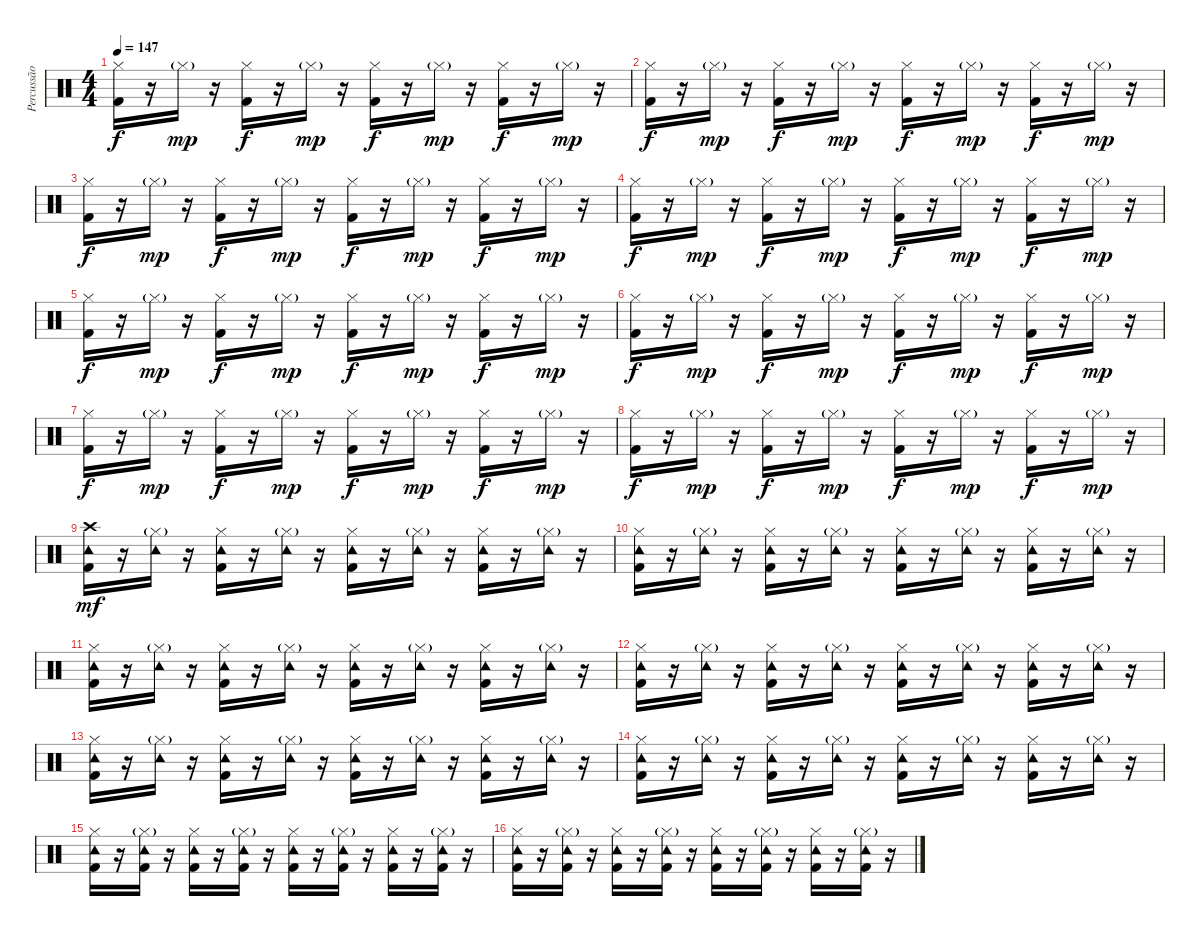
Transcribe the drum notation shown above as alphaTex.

\track ("Percussão" "Percussão") {instrument percussion}
\staff {score}
\articulation defaults
\ts (4 4)
\tempo 147
\clef neutral
\ks c
("Hi-Hat (closed)" "Kick (hit) 2").16{dy f} r.16 "Hi-Hat (closed)"{g}.16{dy mp} r.16 ("Hi-Hat (closed)" "Kick (hit) 2").16{dy f} r.16 "Hi-Hat (closed)"{g}.16{dy mp} r.16 ("Hi-Hat (closed)" "Kick (hit) 2").16{dy f} r.16 "Hi-Hat (closed)"{g}.16{dy mp} r.16 ("Hi-Hat (closed)" "Kick (hit) 2").16{dy f} r.16 "Hi-Hat (closed)"{g}.16{dy mp} r.16 |
("Hi-Hat (closed)" "Kick (hit) 2").16{dy f} r.16 "Hi-Hat (closed)"{g}.16{dy mp} r.16 ("Hi-Hat (closed)" "Kick (hit) 2").16{dy f} r.16 "Hi-Hat (closed)"{g}.16{dy mp} r.16 ("Hi-Hat (closed)" "Kick (hit) 2").16{dy f} r.16 "Hi-Hat (closed)"{g}.16{dy mp} r.16 ("Hi-Hat (closed)" "Kick (hit) 2").16{dy f} r.16 "Hi-Hat (closed)"{g}.16{dy mp} r.16 |
("Hi-Hat (closed)" "Kick (hit) 2").16{dy f} r.16 "Hi-Hat (closed)"{g}.16{dy mp} r.16 ("Hi-Hat (closed)" "Kick (hit) 2").16{dy f} r.16 "Hi-Hat (closed)"{g}.16{dy mp} r.16 ("Hi-Hat (closed)" "Kick (hit) 2").16{dy f} r.16 "Hi-Hat (closed)"{g}.16{dy mp} r.16 ("Hi-Hat (closed)" "Kick (hit) 2").16{dy f} r.16 "Hi-Hat (closed)"{g}.16{dy mp} r.16 |
("Hi-Hat (closed)" "Kick (hit) 2").16{dy f} r.16 "Hi-Hat (closed)"{g}.16{dy mp} r.16 ("Hi-Hat (closed)" "Kick (hit) 2").16{dy f} r.16 "Hi-Hat (closed)"{g}.16{dy mp} r.16 ("Hi-Hat (closed)" "Kick (hit) 2").16{dy f} r.16 "Hi-Hat (closed)"{g}.16{dy mp} r.16 ("Hi-Hat (closed)" "Kick (hit) 2").16{dy f} r.16 "Hi-Hat (closed)"{g}.16{dy mp} r.16 |
("Hi-Hat (closed)" "Kick (hit) 2").16{dy f} r.16 "Hi-Hat (closed)"{g}.16{dy mp} r.16 ("Hi-Hat (closed)" "Kick (hit) 2").16{dy f} r.16 "Hi-Hat (closed)"{g}.16{dy mp} r.16 ("Hi-Hat (closed)" "Kick (hit) 2").16{dy f} r.16 "Hi-Hat (closed)"{g}.16{dy mp} r.16 ("Hi-Hat (closed)" "Kick (hit) 2").16{dy f} r.16 "Hi-Hat (closed)"{g}.16{dy mp} r.16 |
("Hi-Hat (closed)" "Kick (hit) 2").16{dy f} r.16 "Hi-Hat (closed)"{g}.16{dy mp} r.16 ("Hi-Hat (closed)" "Kick (hit) 2").16{dy f} r.16 "Hi-Hat (closed)"{g}.16{dy mp} r.16 ("Hi-Hat (closed)" "Kick (hit) 2").16{dy f} r.16 "Hi-Hat (closed)"{g}.16{dy mp} r.16 ("Hi-Hat (closed)" "Kick (hit) 2").16{dy f} r.16 "Hi-Hat (closed)"{g}.16{dy mp} r.16 |
("Hi-Hat (closed)" "Kick (hit) 2").16{dy f} r.16 "Hi-Hat (closed)"{g}.16{dy mp} r.16 ("Hi-Hat (closed)" "Kick (hit) 2").16{dy f} r.16 "Hi-Hat (closed)"{g}.16{dy mp} r.16 ("Hi-Hat (closed)" "Kick (hit) 2").16{dy f} r.16 "Hi-Hat (closed)"{g}.16{dy mp} r.16 ("Hi-Hat (closed)" "Kick (hit) 2").16{dy f} r.16 "Hi-Hat (closed)"{g}.16{dy mp} r.16 |
("Hi-Hat (closed)" "Kick (hit) 2").16{dy f} r.16 "Hi-Hat (closed)"{g}.16{dy mp} r.16 ("Hi-Hat (closed)" "Kick (hit) 2").16{dy f} r.16 "Hi-Hat (closed)"{g}.16{dy mp} r.16 ("Hi-Hat (closed)" "Kick (hit) 2").16{dy f} r.16 "Hi-Hat (closed)"{g}.16{dy mp} r.16 ("Hi-Hat (closed)" "Kick (hit) 2").16{dy f} r.16 "Hi-Hat (closed)"{g}.16{dy mp} r.16 |
("Crash high (hit)" "Tambourine (hit)" "Kick (hit) 2").16{dy mf} r.16 ("Hi-Hat (closed)"{g} "Tambourine (hit)").16 r.16 ("Hi-Hat (closed)" "Tambourine (hit)" "Kick (hit) 2").16 r.16 ("Hi-Hat (closed)"{g} "Tambourine (hit)").16 r.16 ("Hi-Hat (closed)" "Tambourine (hit)" "Kick (hit) 2").16 r.16 ("Hi-Hat (closed)"{g} "Tambourine (hit)").16 r.16 ("Hi-Hat (closed)" "Tambourine (hit)" "Kick (hit) 2").16 r.16 ("Hi-Hat (closed)"{g} "Tambourine (hit)").16 r.16 |
("Hi-Hat (closed)" "Tambourine (hit)" "Kick (hit) 2").16 r.16 ("Hi-Hat (closed)"{g} "Tambourine (hit)").16 r.16 ("Hi-Hat (closed)" "Tambourine (hit)" "Kick (hit) 2").16 r.16 ("Hi-Hat (closed)"{g} "Tambourine (hit)").16 r.16 ("Hi-Hat (closed)" "Tambourine (hit)" "Kick (hit) 2").16 r.16 ("Hi-Hat (closed)"{g} "Tambourine (hit)").16 r.16 ("Hi-Hat (closed)" "Tambourine (hit)" "Kick (hit) 2").16 r.16 ("Hi-Hat (closed)"{g} "Tambourine (hit)").16 r.16 |
("Hi-Hat (closed)" "Tambourine (hit)" "Kick (hit) 2").16 r.16 ("Hi-Hat (closed)"{g} "Tambourine (hit)").16 r.16 ("Hi-Hat (closed)" "Tambourine (hit)" "Kick (hit) 2").16 r.16 ("Hi-Hat (closed)"{g} "Tambourine (hit)").16 r.16 ("Hi-Hat (closed)" "Tambourine (hit)" "Kick (hit) 2").16 r.16 ("Hi-Hat (closed)"{g} "Tambourine (hit)").16 r.16 ("Hi-Hat (closed)" "Tambourine (hit)" "Kick (hit) 2").16 r.16 ("Hi-Hat (closed)"{g} "Tambourine (hit)").16 r.16 |
("Hi-Hat (closed)" "Tambourine (hit)" "Kick (hit) 2").16 r.16 ("Hi-Hat (closed)"{g} "Tambourine (hit)").16 r.16 ("Hi-Hat (closed)" "Tambourine (hit)" "Kick (hit) 2").16 r.16 ("Hi-Hat (closed)"{g} "Tambourine (hit)").16 r.16 ("Hi-Hat (closed)" "Tambourine (hit)" "Kick (hit) 2").16 r.16 ("Hi-Hat (closed)"{g} "Tambourine (hit)").16 r.16 ("Hi-Hat (closed)" "Tambourine (hit)" "Kick (hit) 2").16 r.16 ("Hi-Hat (closed)"{g} "Tambourine (hit)").16 r.16 |
("Hi-Hat (closed)" "Tambourine (hit)" "Kick (hit) 2").16 r.16 ("Hi-Hat (closed)"{g} "Tambourine (hit)").16 r.16 ("Hi-Hat (closed)" "Tambourine (hit)" "Kick (hit) 2").16 r.16 ("Hi-Hat (closed)"{g} "Tambourine (hit)").16 r.16 ("Hi-Hat (closed)" "Tambourine (hit)" "Kick (hit) 2").16 r.16 ("Hi-Hat (closed)"{g} "Tambourine (hit)").16 r.16 ("Hi-Hat (closed)" "Tambourine (hit)" "Kick (hit) 2").16 r.16 ("Hi-Hat (closed)"{g} "Tambourine (hit)").16 r.16 |
("Hi-Hat (closed)" "Tambourine (hit)" "Kick (hit) 2").16 r.16 ("Hi-Hat (closed)"{g} "Tambourine (hit)").16 r.16 ("Hi-Hat (closed)" "Tambourine (hit)" "Kick (hit) 2").16 r.16 ("Hi-Hat (closed)"{g} "Tambourine (hit)").16 r.16 ("Hi-Hat (closed)" "Tambourine (hit)" "Kick (hit) 2").16 r.16 ("Hi-Hat (closed)"{g} "Tambourine (hit)").16 r.16 ("Hi-Hat (closed)" "Tambourine (hit)" "Kick (hit) 2").16 r.16 ("Hi-Hat (closed)"{g} "Tambourine (hit)").16 r.16 |
("Hi-Hat (closed)" "Tambourine (hit)" "Kick (hit) 2").16 r.16 ("Hi-Hat (closed)"{g} "Tambourine (hit)" "Kick (hit) 2").16 r.16 ("Hi-Hat (closed)" "Tambourine (hit)" "Kick (hit) 2").16 r.16 ("Hi-Hat (closed)"{g} "Tambourine (hit)" "Kick (hit) 2").16 r.16 ("Hi-Hat (closed)" "Tambourine (hit)" "Kick (hit) 2").16 r.16 ("Hi-Hat (closed)"{g} "Tambourine (hit)" "Kick (hit) 2").16 r.16 ("Hi-Hat (closed)" "Tambourine (hit)" "Kick (hit) 2").16 r.16 ("Hi-Hat (closed)"{g} "Tambourine (hit)" "Kick (hit) 2").16 r.16 |
("Hi-Hat (closed)" "Tambourine (hit)" "Kick (hit) 2").16 r.16 ("Hi-Hat (closed)"{g} "Tambourine (hit)" "Kick (hit) 2").16 r.16 ("Hi-Hat (closed)" "Tambourine (hit)" "Kick (hit) 2").16 r.16 ("Hi-Hat (closed)"{g} "Tambourine (hit)" "Kick (hit) 2").16 r.16 ("Hi-Hat (closed)" "Tambourine (hit)" "Kick (hit) 2").16 r.16 ("Hi-Hat (closed)"{g} "Tambourine (hit)" "Kick (hit) 2").16 r.16 ("Hi-Hat (closed)" "Tambourine (hit)" "Kick (hit) 2").16 r.16 ("Hi-Hat (closed)"{g} "Tambourine (hit)" "Kick (hit) 2").16 r.16
